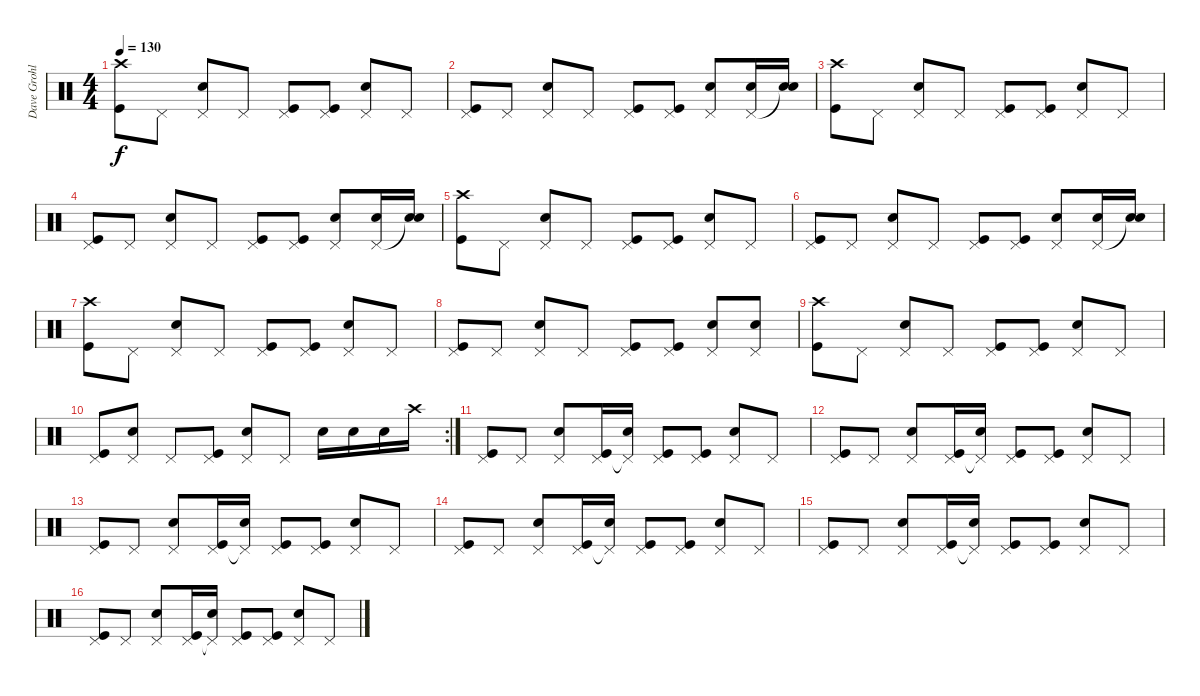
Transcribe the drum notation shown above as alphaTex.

\track ("Dave Grohl" "Dave Grohl") {instrument percussion}
\staff {score}
\articulation defaults
\ts (4 4)
\tempo 130
\clef neutral
\ks c
("Crash high (hit)" "Kick (hit)").8{dy f} "Pedal Hi-Hat (hit)".8 ("Pedal Hi-Hat (hit)" "Snare (hit) 2").8 "Pedal Hi-Hat (hit)".8 ("Pedal Hi-Hat (hit)" "Kick (hit)").8 ("Pedal Hi-Hat (hit)" "Kick (hit)").8 ("Pedal Hi-Hat (hit)" "Snare (hit) 2").8 "Pedal Hi-Hat (hit)".8 |
("Pedal Hi-Hat (hit)" "Kick (hit)").8 "Pedal Hi-Hat (hit)".8 ("Pedal Hi-Hat (hit)" "Snare (hit) 2").8 "Pedal Hi-Hat (hit)".8 ("Pedal Hi-Hat (hit)" "Kick (hit)").8 ("Pedal Hi-Hat (hit)" "Kick (hit)").8 ("Pedal Hi-Hat (hit)" "Snare (hit) 2").8 ("Pedal Hi-Hat (hit)" "Snare (hit) 2").16 ("Snare (hit)"{t} "Snare (hit) 2").16 |
("Crash high (hit)" "Kick (hit)").8 "Pedal Hi-Hat (hit)".8 ("Pedal Hi-Hat (hit)" "Snare (hit) 2").8 "Pedal Hi-Hat (hit)".8 ("Pedal Hi-Hat (hit)" "Kick (hit)").8 ("Pedal Hi-Hat (hit)" "Kick (hit)").8 ("Pedal Hi-Hat (hit)" "Snare (hit) 2").8 "Pedal Hi-Hat (hit)".8 |
("Pedal Hi-Hat (hit)" "Kick (hit)").8 "Pedal Hi-Hat (hit)".8 ("Pedal Hi-Hat (hit)" "Snare (hit) 2").8 "Pedal Hi-Hat (hit)".8 ("Pedal Hi-Hat (hit)" "Kick (hit)").8 ("Pedal Hi-Hat (hit)" "Kick (hit)").8 ("Pedal Hi-Hat (hit)" "Snare (hit) 2").8 ("Pedal Hi-Hat (hit)" "Snare (hit) 2").16 ("Snare (hit)"{t} "Snare (hit) 2").16 |
("Crash high (hit)" "Kick (hit)").8 "Pedal Hi-Hat (hit)".8 ("Pedal Hi-Hat (hit)" "Snare (hit) 2").8 "Pedal Hi-Hat (hit)".8 ("Pedal Hi-Hat (hit)" "Kick (hit)").8 ("Pedal Hi-Hat (hit)" "Kick (hit)").8 ("Pedal Hi-Hat (hit)" "Snare (hit) 2").8 "Pedal Hi-Hat (hit)".8 |
("Pedal Hi-Hat (hit)" "Kick (hit)").8 "Pedal Hi-Hat (hit)".8 ("Pedal Hi-Hat (hit)" "Snare (hit) 2").8 "Pedal Hi-Hat (hit)".8 ("Pedal Hi-Hat (hit)" "Kick (hit)").8 ("Pedal Hi-Hat (hit)" "Kick (hit)").8 ("Pedal Hi-Hat (hit)" "Snare (hit) 2").8 ("Pedal Hi-Hat (hit)" "Snare (hit) 2").16 ("Snare (hit)"{t} "Snare (hit) 2").16 |
("Crash high (hit)" "Kick (hit)").8 "Pedal Hi-Hat (hit)".8 ("Pedal Hi-Hat (hit)" "Snare (hit) 2").8 "Pedal Hi-Hat (hit)".8 ("Pedal Hi-Hat (hit)" "Kick (hit)").8 ("Pedal Hi-Hat (hit)" "Kick (hit)").8 ("Pedal Hi-Hat (hit)" "Snare (hit) 2").8 "Pedal Hi-Hat (hit)".8 |
("Pedal Hi-Hat (hit)" "Kick (hit)").8 "Pedal Hi-Hat (hit)".8 ("Pedal Hi-Hat (hit)" "Snare (hit) 2").8 "Pedal Hi-Hat (hit)".8 ("Pedal Hi-Hat (hit)" "Kick (hit)").8 ("Pedal Hi-Hat (hit)" "Kick (hit)").8 ("Pedal Hi-Hat (hit)" "Snare (hit) 2").8 ("Pedal Hi-Hat (hit)" "Snare (hit) 2").8 |
("Crash high (hit)" "Kick (hit)").8 "Pedal Hi-Hat (hit)".8 ("Pedal Hi-Hat (hit)" "Snare (hit) 2").8 "Pedal Hi-Hat (hit)".8 ("Pedal Hi-Hat (hit)" "Kick (hit)").8 ("Pedal Hi-Hat (hit)" "Kick (hit)").8 ("Pedal Hi-Hat (hit)" "Snare (hit) 2").8 "Pedal Hi-Hat (hit)".8 |
\rc 2
("Pedal Hi-Hat (hit)" "Kick (hit)").8 ("Pedal Hi-Hat (hit)" "Snare (hit) 2").8 "Pedal Hi-Hat (hit)".8 ("Pedal Hi-Hat (hit)" "Kick (hit)").8 ("Pedal Hi-Hat (hit)" "Snare (hit) 2").8 "Pedal Hi-Hat (hit)".8 "Snare (hit) 2".16 "Snare (hit) 2".16 "Snare (hit) 2".16 "Crash high (hit)".16 |
("Pedal Hi-Hat (hit)" "Kick (hit)").8 "Pedal Hi-Hat (hit)".8 ("Pedal Hi-Hat (hit)" "Snare (hit) 2").8 ("Pedal Hi-Hat (hit)" "Kick (hit)").16 ("Pedal Hi-Hat (hit)"{t} "Snare (hit) 2").16 ("Pedal Hi-Hat (hit)" "Kick (hit)").8 ("Pedal Hi-Hat (hit)" "Kick (hit)").8 ("Pedal Hi-Hat (hit)" "Snare (hit) 2").8 "Pedal Hi-Hat (hit)".8 |
("Pedal Hi-Hat (hit)" "Kick (hit)").8 "Pedal Hi-Hat (hit)".8 ("Pedal Hi-Hat (hit)" "Snare (hit) 2").8 ("Pedal Hi-Hat (hit)" "Kick (hit)").16 ("Pedal Hi-Hat (hit)"{t} "Snare (hit) 2").16 ("Pedal Hi-Hat (hit)" "Kick (hit)").8 ("Pedal Hi-Hat (hit)" "Kick (hit)").8 ("Pedal Hi-Hat (hit)" "Snare (hit) 2").8 "Pedal Hi-Hat (hit)".8 |
("Pedal Hi-Hat (hit)" "Kick (hit)").8 "Pedal Hi-Hat (hit)".8 ("Pedal Hi-Hat (hit)" "Snare (hit) 2").8 ("Pedal Hi-Hat (hit)" "Kick (hit)").16 ("Pedal Hi-Hat (hit)"{t} "Snare (hit) 2").16 ("Pedal Hi-Hat (hit)" "Kick (hit)").8 ("Pedal Hi-Hat (hit)" "Kick (hit)").8 ("Pedal Hi-Hat (hit)" "Snare (hit) 2").8 "Pedal Hi-Hat (hit)".8 |
("Pedal Hi-Hat (hit)" "Kick (hit)").8 "Pedal Hi-Hat (hit)".8 ("Pedal Hi-Hat (hit)" "Snare (hit) 2").8 ("Pedal Hi-Hat (hit)" "Kick (hit)").16 ("Pedal Hi-Hat (hit)"{t} "Snare (hit) 2").16 ("Pedal Hi-Hat (hit)" "Kick (hit)").8 ("Pedal Hi-Hat (hit)" "Kick (hit)").8 ("Pedal Hi-Hat (hit)" "Snare (hit) 2").8 "Pedal Hi-Hat (hit)".8 |
("Pedal Hi-Hat (hit)" "Kick (hit)").8 "Pedal Hi-Hat (hit)".8 ("Pedal Hi-Hat (hit)" "Snare (hit) 2").8 ("Pedal Hi-Hat (hit)" "Kick (hit)").16 ("Pedal Hi-Hat (hit)"{t} "Snare (hit) 2").16 ("Pedal Hi-Hat (hit)" "Kick (hit)").8 ("Pedal Hi-Hat (hit)" "Kick (hit)").8 ("Pedal Hi-Hat (hit)" "Snare (hit) 2").8 "Pedal Hi-Hat (hit)".8 |
("Pedal Hi-Hat (hit)" "Kick (hit)").8 "Pedal Hi-Hat (hit)".8 ("Pedal Hi-Hat (hit)" "Snare (hit) 2").8 ("Pedal Hi-Hat (hit)" "Kick (hit)").16 ("Pedal Hi-Hat (hit)"{t} "Snare (hit) 2").16 ("Pedal Hi-Hat (hit)" "Kick (hit)").8 ("Pedal Hi-Hat (hit)" "Kick (hit)").8 ("Pedal Hi-Hat (hit)" "Snare (hit) 2").8 "Pedal Hi-Hat (hit)".8
